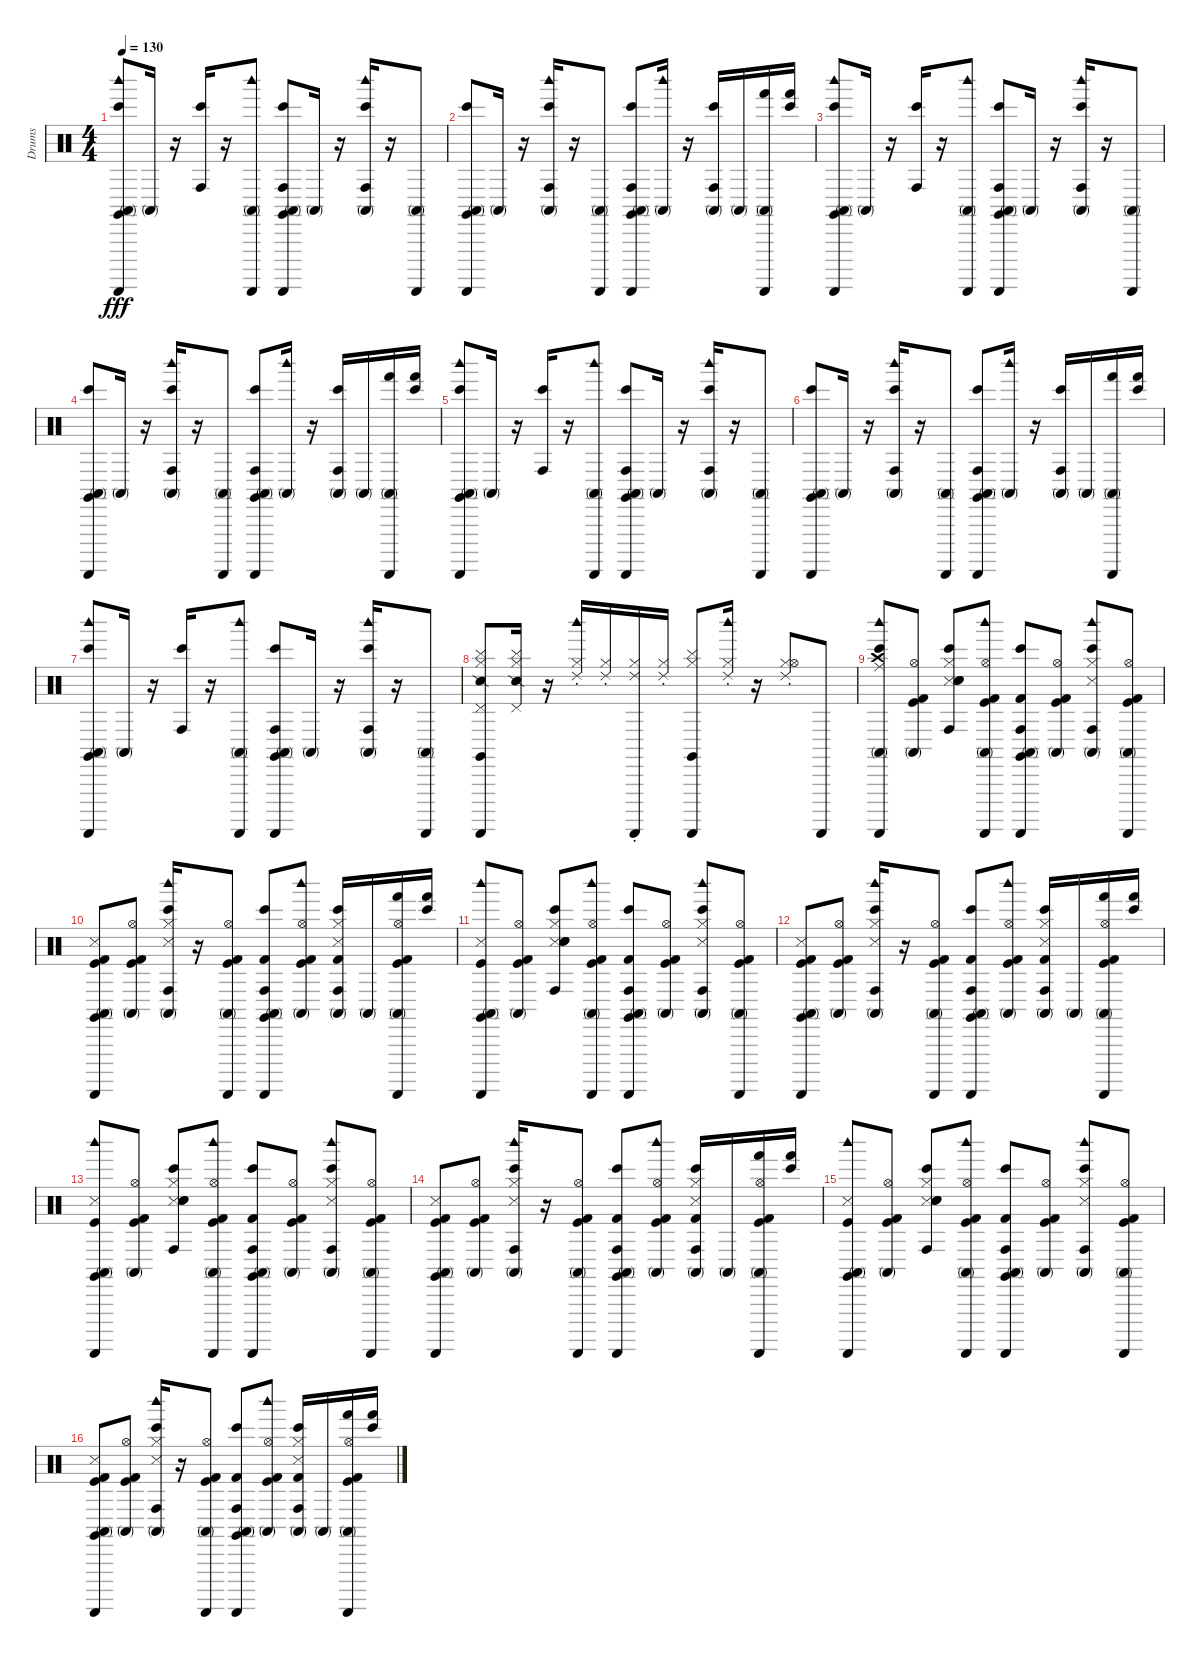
\track ("Drums" "Drums") {instrument percussion}
\staff {score}
\articulation defaults
\ts (4 4)
\tempo 130
\clef neutral
\ks c
("Guiro (scrap-return)" "Woodblock high (hit)" "Bongo High (hit)" "Conga high (mute)" "Claves (hit)").8{dy fff} "Conga high (mute)".16 r.16 ("Bongo High (hit)" "Conga high (hit)").16 r.16 ("Guiro (scrap-return)" "Woodblock high (hit)" "Conga high (mute)").8 ("Guiro (scrap-return)" "Claves (hit)" "Bongo High (hit)" "Conga high (mute)" "Conga high (hit)").8 "Conga high (mute)".16 r.16 ("Woodblock high (hit)" "Bongo High (hit)" "Conga high (mute)" "Conga high (hit)").16 r.16 ("Guiro (scrap-return)" "Conga high (mute)").8 |
("Guiro (scrap-return)" "Claves (hit)" "Conga high (mute)" "Bongo High (hit)").8 "Conga high (mute)".16 r.16 ("Woodblock high (hit)" "Conga high (mute)" "Conga high (hit)" "Bongo High (hit)").16 r.16 ("Guiro (scrap-return)" "Conga high (mute)").8 ("Guiro (scrap-return)" "Claves (hit)" "Conga high (mute)" "Conga high (hit)" "Bongo High (hit)").8 ("Woodblock high (hit)" "Conga high (mute)").16 r.16 ("Conga high (mute)" "Conga high (hit)" "Bongo High (hit)").16 "Conga high (mute)".16 ("Guiro (scrap-return)" "Hand (hit)" "Conga high (mute)").16 ("Bongo High (hit)" "Hand (hit)").16 |
("Guiro (scrap-return)" "Woodblock high (hit)" "Claves (hit)" "Conga high (mute)" "Bongo High (hit)").8 "Conga high (mute)".16 r.16 ("Conga high (hit)" "Bongo High (hit)").16 r.16 ("Guiro (scrap-return)" "Woodblock high (hit)" "Conga high (mute)").8 ("Guiro (scrap-return)" "Claves (hit)" "Conga high (mute)" "Conga high (hit)" "Bongo High (hit)").8 "Conga high (mute)".16 r.16 ("Woodblock high (hit)" "Conga high (mute)" "Conga high (hit)" "Bongo High (hit)").16 r.16 ("Guiro (scrap-return)" "Conga high (mute)").8 |
("Guiro (scrap-return)" "Claves (hit)" "Conga high (mute)" "Bongo High (hit)").8 "Conga high (mute)".16 r.16 ("Woodblock high (hit)" "Conga high (mute)" "Conga high (hit)" "Bongo High (hit)").16 r.16 ("Guiro (scrap-return)" "Conga high (mute)").8 ("Guiro (scrap-return)" "Claves (hit)" "Conga high (mute)" "Conga high (hit)" "Bongo High (hit)").8 ("Woodblock high (hit)" "Conga high (mute)").16 r.16 ("Conga high (mute)" "Conga high (hit)" "Bongo High (hit)").16 "Conga high (mute)".16 ("Guiro (scrap-return)" "Hand (hit)" "Conga high (mute)").16 ("Bongo High (hit)" "Hand (hit)").16 |
("Conga high (mute)" "Claves (hit)" "Woodblock high (hit)" "Guiro (scrap-return)" "Bongo High (hit)").8 "Conga high (mute)".16 r.16 ("Conga high (hit)" "Bongo High (hit)").16 r.16 ("Guiro (scrap-return)" "Woodblock high (hit)" "Conga high (mute)").8 ("Guiro (scrap-return)" "Claves (hit)" "Conga high (mute)" "Conga high (hit)" "Bongo High (hit)").8 "Conga high (mute)".16 r.16 ("Woodblock high (hit)" "Conga high (mute)" "Conga high (hit)" "Bongo High (hit)").16 r.16 ("Guiro (scrap-return)" "Conga high (mute)").8 |
("Guiro (scrap-return)" "Claves (hit)" "Conga high (mute)" "Bongo High (hit)").8 "Conga high (mute)".16 r.16 ("Woodblock high (hit)" "Conga high (mute)" "Conga high (hit)" "Bongo High (hit)").16 r.16 ("Guiro (scrap-return)" "Conga high (mute)").8 ("Guiro (scrap-return)" "Claves (hit)" "Conga high (mute)" "Conga high (hit)" "Bongo High (hit)").8 ("Woodblock high (hit)" "Conga high (mute)").16 r.16 ("Conga high (mute)" "Conga high (hit)" "Bongo High (hit)").16 "Conga high (mute)".16 ("Guiro (scrap-return)" "Hand (hit)" "Conga high (mute)").16 ("Bongo High (hit)" "Hand (hit)").16 |
("Guiro (scrap-return)" "Woodblock high (hit)" "Claves (hit)" "Conga high (mute)" "Bongo High (hit)").8 "Conga high (mute)".16 r.16 ("Conga high (hit)" "Bongo High (hit)").16 r.16 ("Guiro (scrap-return)" "Woodblock high (hit)" "Conga high (mute)").8 ("Guiro (scrap-return)" "Claves (hit)" "Conga high (mute)" "Conga high (hit)" "Bongo High (hit)").8 "Conga high (mute)".16 r.16 ("Woodblock high (hit)" "Conga high (mute)" "Conga high (hit)" "Bongo High (hit)").16 r.16 ("Guiro (scrap-return)" "Conga high (mute)").8 |
("Claves (hit)" "Guiro (scrap-return)" "Cymbal (hit)" "Hi-Hat (closed)" "Snare (side stick) 2" "Pedal Hi-Hat (hit)").8 ("Cymbal (hit)" "Hi-Hat (closed)" "Snare (side stick) 2" "Pedal Hi-Hat (hit)").16 r.16 ("Woodblock high (hit)" "Hi-Hat (closed)" "Ride (choke) 2").16 ("Hi-Hat (closed)" "Ride (choke) 2").16 ("Guiro (scrap-return)" "Hi-Hat (closed)" "Ride (choke) 2").16 ("Hi-Hat (closed)" "Ride (choke) 2").16 ("Guiro (scrap-return)" "Claves (hit)" "Hi-Hat (closed)" "Cymbal (hit)").8 ("Woodblock high (hit)" "Hi-Hat (closed)" "Ride (choke) 2").16 r.16 ("Hi-Hat (closed)" "Ride (choke) 2" "Hi-Hat (open)").8 "Guiro (scrap-return)".8 |
("Guiro (scrap-return)" "Woodblock high (hit)" "Bongo High (hit)" "Conga high (mute)" "Crash high (hit)" "Ride (middle)").8 ("Conga high (mute)" "Hi-Hat (open)" "Kick (hit)" "Kick (hit) 2").8 ("Bongo High (hit)" "Conga high (hit)" "Snare (side stick) 3" "Hi-Hat (closed)" "Electric Snare (hit)" "Snare (hit) 2").8 ("Kick (hit) 2" "Kick (hit)" "Guiro (scrap-return)" "Woodblock high (hit)" "Conga high (mute)" "Hi-Hat (open)").8 ("Kick (hit) 2" "Guiro (scrap-return)" "Claves (hit)" "Bongo High (hit)" "Conga high (mute)" "Conga high (hit)").8 ("Conga high (mute)" "Hi-Hat (open)" "Kick (hit) 2" "Kick (hit)").8 ("Woodblock high (hit)" "Bongo High (hit)" "Conga high (mute)" "Conga high (hit)" "Snare (side stick) 3" "Hi-Hat (closed)").8 ("Kick (hit) 2" "Kick (hit)" "Guiro (scrap-return)" "Conga high (mute)" "Hi-Hat (open)").8 |
("Guiro (scrap-return)" "Claves (hit)" "Conga high (mute)" "Snare (side stick) 3" "Kick (hit)" "Kick (hit) 2").8 ("Conga high (mute)" "Hi-Hat (open)" "Kick (hit)" "Kick (hit) 2").8 ("Woodblock high (hit)" "Conga high (mute)" "Conga high (hit)" "Bongo High (hit)" "Snare (side stick) 3" "Hi-Hat (closed)").16 r.16 ("Guiro (scrap-return)" "Conga high (mute)" "Kick (hit) 2" "Kick (hit)" "Hi-Hat (open)").8 ("Guiro (scrap-return)" "Claves (hit)" "Conga high (mute)" "Conga high (hit)" "Kick (hit) 2" "Bongo High (hit)").8 ("Woodblock high (hit)" "Conga high (mute)" "Hi-Hat (open)" "Kick (hit) 2" "Kick (hit)").8 ("Conga high (mute)" "Conga high (hit)" "Bongo High (hit)" "Snare (side stick) 3" "Hi-Hat (closed)" "Kick (hit) 2").16 "Conga high (mute)".16 ("Guiro (scrap-return)" "Hand (hit)" "Conga high (mute)" "Kick (hit) 2" "Kick (hit)" "Hi-Hat (open)").16 ("Bongo High (hit)" "Hand (hit)").16 |
("Guiro (scrap-return)" "Woodblock high (hit)" "Claves (hit)" "Conga high (mute)" "Snare (side stick) 3" "Kick (hit)").8 ("Conga high (mute)" "Hi-Hat (open)" "Kick (hit)" "Kick (hit) 2").8 ("Conga high (hit)" "Bongo High (hit)" "Snare (side stick) 3" "Hi-Hat (closed)" "Electric Snare (hit)" "Snare (hit) 2").8 ("Guiro (scrap-return)" "Woodblock high (hit)" "Conga high (mute)" "Kick (hit) 2" "Kick (hit)" "Hi-Hat (open)").8 ("Guiro (scrap-return)" "Claves (hit)" "Conga high (mute)" "Conga high (hit)" "Kick (hit) 2" "Bongo High (hit)").8 ("Conga high (mute)" "Hi-Hat (open)" "Kick (hit) 2" "Kick (hit)").8 ("Woodblock high (hit)" "Conga high (mute)" "Conga high (hit)" "Bongo High (hit)" "Snare (side stick) 3" "Hi-Hat (closed)").8 ("Guiro (scrap-return)" "Conga high (mute)" "Kick (hit) 2" "Kick (hit)" "Hi-Hat (open)").8 |
("Guiro (scrap-return)" "Claves (hit)" "Conga high (mute)" "Snare (side stick) 3" "Kick (hit)" "Kick (hit) 2").8 ("Conga high (mute)" "Hi-Hat (open)" "Kick (hit)" "Kick (hit) 2").8 ("Woodblock high (hit)" "Conga high (mute)" "Conga high (hit)" "Bongo High (hit)" "Snare (side stick) 3" "Hi-Hat (closed)").16 r.16 ("Guiro (scrap-return)" "Conga high (mute)" "Kick (hit) 2" "Kick (hit)" "Hi-Hat (open)").8 ("Guiro (scrap-return)" "Claves (hit)" "Conga high (mute)" "Conga high (hit)" "Kick (hit) 2" "Bongo High (hit)").8 ("Woodblock high (hit)" "Conga high (mute)" "Hi-Hat (open)" "Kick (hit) 2" "Kick (hit)").8 ("Conga high (mute)" "Conga high (hit)" "Bongo High (hit)" "Snare (side stick) 3" "Hi-Hat (closed)" "Kick (hit) 2").16 "Conga high (mute)".16 ("Guiro (scrap-return)" "Hand (hit)" "Conga high (mute)" "Kick (hit) 2" "Kick (hit)" "Hi-Hat (open)").16 ("Bongo High (hit)" "Hand (hit)").16 |
("Guiro (scrap-return)" "Woodblock high (hit)" "Claves (hit)" "Conga high (mute)" "Snare (side stick) 3" "Kick (hit)").8 ("Conga high (mute)" "Hi-Hat (open)" "Kick (hit)" "Kick (hit) 2").8 ("Conga high (hit)" "Bongo High (hit)" "Snare (side stick) 3" "Hi-Hat (closed)" "Electric Snare (hit)" "Snare (hit) 2").8 ("Guiro (scrap-return)" "Woodblock high (hit)" "Conga high (mute)" "Kick (hit) 2" "Kick (hit)" "Hi-Hat (open)").8 ("Guiro (scrap-return)" "Claves (hit)" "Conga high (mute)" "Conga high (hit)" "Kick (hit) 2" "Bongo High (hit)").8 ("Conga high (mute)" "Hi-Hat (open)" "Kick (hit) 2" "Kick (hit)").8 ("Woodblock high (hit)" "Conga high (mute)" "Conga high (hit)" "Bongo High (hit)" "Snare (side stick) 3" "Hi-Hat (closed)").8 ("Guiro (scrap-return)" "Conga high (mute)" "Kick (hit) 2" "Kick (hit)" "Hi-Hat (open)").8 |
("Guiro (scrap-return)" "Claves (hit)" "Conga high (mute)" "Snare (side stick) 3" "Kick (hit)" "Kick (hit) 2").8 ("Conga high (mute)" "Hi-Hat (open)" "Kick (hit)" "Kick (hit) 2").8 ("Woodblock high (hit)" "Conga high (mute)" "Conga high (hit)" "Bongo High (hit)" "Snare (side stick) 3" "Hi-Hat (closed)").16 r.16 ("Guiro (scrap-return)" "Conga high (mute)" "Kick (hit) 2" "Kick (hit)" "Hi-Hat (open)").8 ("Guiro (scrap-return)" "Claves (hit)" "Conga high (mute)" "Conga high (hit)" "Kick (hit) 2" "Bongo High (hit)").8 ("Woodblock high (hit)" "Conga high (mute)" "Hi-Hat (open)" "Kick (hit) 2" "Kick (hit)").8 ("Conga high (mute)" "Conga high (hit)" "Bongo High (hit)" "Snare (side stick) 3" "Hi-Hat (closed)" "Kick (hit) 2").16 "Conga high (mute)".16 ("Guiro (scrap-return)" "Hand (hit)" "Conga high (mute)" "Kick (hit) 2" "Kick (hit)" "Hi-Hat (open)").16 ("Bongo High (hit)" "Hand (hit)").16 |
("Guiro (scrap-return)" "Woodblock high (hit)" "Claves (hit)" "Conga high (mute)" "Snare (side stick) 3" "Kick (hit)").8 ("Conga high (mute)" "Hi-Hat (open)" "Kick (hit)" "Kick (hit) 2").8 ("Conga high (hit)" "Bongo High (hit)" "Snare (side stick) 3" "Hi-Hat (closed)" "Electric Snare (hit)" "Snare (hit) 2").8 ("Guiro (scrap-return)" "Woodblock high (hit)" "Conga high (mute)" "Kick (hit) 2" "Kick (hit)" "Hi-Hat (open)").8 ("Guiro (scrap-return)" "Claves (hit)" "Conga high (mute)" "Conga high (hit)" "Kick (hit) 2" "Bongo High (hit)").8 ("Conga high (mute)" "Hi-Hat (open)" "Kick (hit) 2" "Kick (hit)").8 ("Woodblock high (hit)" "Conga high (mute)" "Conga high (hit)" "Bongo High (hit)" "Snare (side stick) 3" "Hi-Hat (closed)").8 ("Guiro (scrap-return)" "Conga high (mute)" "Kick (hit) 2" "Kick (hit)" "Hi-Hat (open)").8 |
("Guiro (scrap-return)" "Claves (hit)" "Conga high (mute)" "Snare (side stick) 3" "Kick (hit)" "Kick (hit) 2").8 ("Conga high (mute)" "Hi-Hat (open)" "Kick (hit)" "Kick (hit) 2").8 ("Woodblock high (hit)" "Conga high (mute)" "Conga high (hit)" "Bongo High (hit)" "Snare (side stick) 3" "Hi-Hat (closed)").16 r.16 ("Guiro (scrap-return)" "Conga high (mute)" "Kick (hit) 2" "Kick (hit)" "Hi-Hat (open)").8 ("Guiro (scrap-return)" "Claves (hit)" "Conga high (mute)" "Conga high (hit)" "Kick (hit) 2" "Bongo High (hit)").8 ("Woodblock high (hit)" "Conga high (mute)" "Hi-Hat (open)" "Kick (hit) 2" "Kick (hit)").8 ("Conga high (mute)" "Conga high (hit)" "Bongo High (hit)" "Snare (side stick) 3" "Hi-Hat (closed)" "Kick (hit) 2").16 "Conga high (mute)".16 ("Guiro (scrap-return)" "Hand (hit)" "Conga high (mute)" "Kick (hit) 2" "Kick (hit)" "Hi-Hat (open)").16 ("Bongo High (hit)" "Hand (hit)").16
